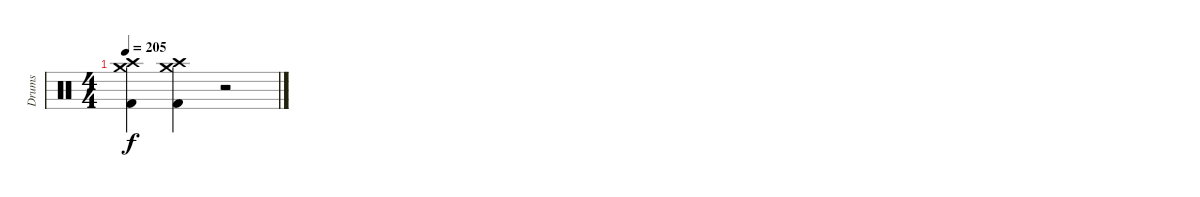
\track ("Drums" "Drums") {instrument percussion}
\staff {score}
\articulation defaults
\ts (4 4)
\tempo 205
\clef neutral
\ks c
("Crash high (hit)" "Crash medium (hit)" "Kick (hit) 2").4{dy f} ("Crash high (hit)" "Crash medium (hit)" "Kick (hit) 2").4 r.2
